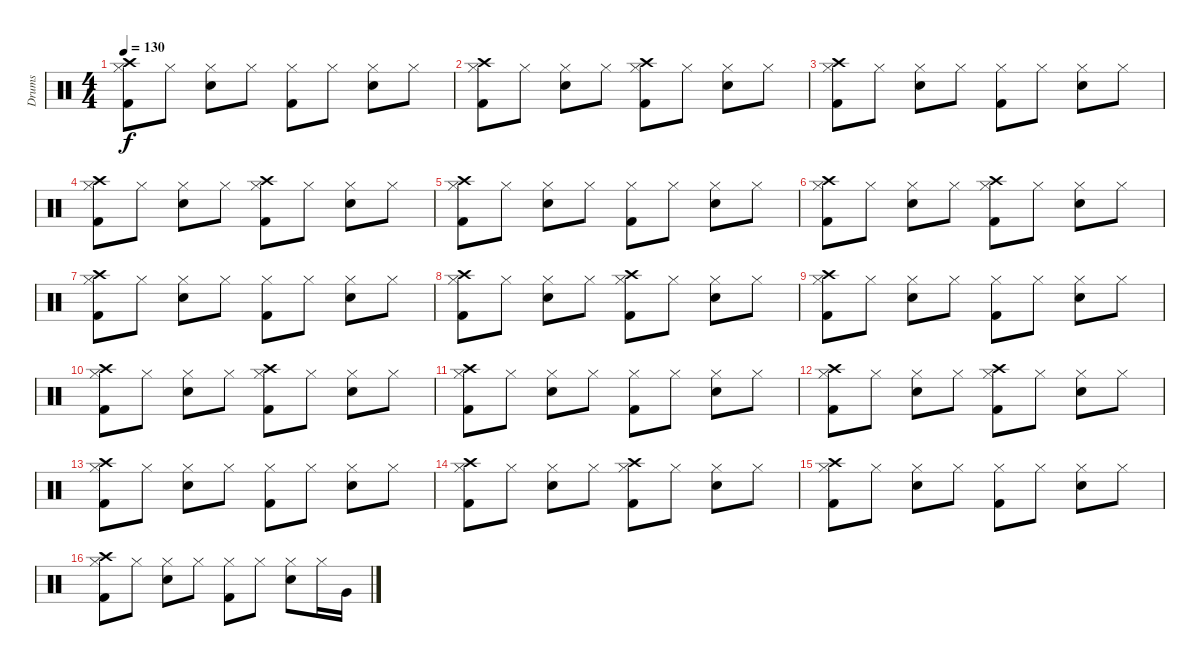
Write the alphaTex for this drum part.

\track ("Drums" "Drums") {instrument percussion}
\staff {score}
\articulation defaults
\ts (4 4)
\tempo 130
\clef neutral
\ks c
("Kick (hit) 2" "Hi-Hat (closed)" "Crash high (hit)").8{dy f} "Hi-Hat (closed)".8 ("Snare (hit) 2" "Hi-Hat (closed)").8 "Hi-Hat (closed)".8 ("Kick (hit) 2" "Hi-Hat (closed)").8 "Hi-Hat (closed)".8 ("Snare (hit) 2" "Hi-Hat (closed)").8 "Hi-Hat (closed)".8 |
("Kick (hit) 2" "Hi-Hat (closed)" "Crash high (hit)").8 "Hi-Hat (closed)".8 ("Snare (hit) 2" "Hi-Hat (closed)").8 "Hi-Hat (closed)".8 ("Kick (hit) 2" "Hi-Hat (closed)" "Crash high (hit)").8 "Hi-Hat (closed)".8 ("Snare (hit) 2" "Hi-Hat (closed)").8 "Hi-Hat (closed)".8 |
("Kick (hit) 2" "Hi-Hat (closed)" "Crash high (hit)").8 "Hi-Hat (closed)".8 ("Snare (hit) 2" "Hi-Hat (closed)").8 "Hi-Hat (closed)".8 ("Kick (hit) 2" "Hi-Hat (closed)").8 "Hi-Hat (closed)".8 ("Snare (hit) 2" "Hi-Hat (closed)").8 "Hi-Hat (closed)".8 |
("Kick (hit) 2" "Hi-Hat (closed)" "Crash high (hit)").8 "Hi-Hat (closed)".8 ("Snare (hit) 2" "Hi-Hat (closed)").8 "Hi-Hat (closed)".8 ("Kick (hit) 2" "Hi-Hat (closed)" "Crash high (hit)").8 "Hi-Hat (closed)".8 ("Snare (hit) 2" "Hi-Hat (closed)").8 "Hi-Hat (closed)".8 |
("Kick (hit) 2" "Hi-Hat (closed)" "Crash high (hit)").8 "Hi-Hat (closed)".8 ("Snare (hit) 2" "Hi-Hat (closed)").8 "Hi-Hat (closed)".8 ("Kick (hit) 2" "Hi-Hat (closed)").8 "Hi-Hat (closed)".8 ("Snare (hit) 2" "Hi-Hat (closed)").8 "Hi-Hat (closed)".8 |
("Kick (hit) 2" "Hi-Hat (closed)" "Crash high (hit)").8 "Hi-Hat (closed)".8 ("Snare (hit) 2" "Hi-Hat (closed)").8 "Hi-Hat (closed)".8 ("Kick (hit) 2" "Hi-Hat (closed)" "Crash high (hit)").8 "Hi-Hat (closed)".8 ("Snare (hit) 2" "Hi-Hat (closed)").8 "Hi-Hat (closed)".8 |
("Kick (hit) 2" "Hi-Hat (closed)" "Crash high (hit)").8 "Hi-Hat (closed)".8 ("Snare (hit) 2" "Hi-Hat (closed)").8 "Hi-Hat (closed)".8 ("Kick (hit) 2" "Hi-Hat (closed)").8 "Hi-Hat (closed)".8 ("Snare (hit) 2" "Hi-Hat (closed)").8 "Hi-Hat (closed)".8 |
("Kick (hit) 2" "Hi-Hat (closed)" "Crash high (hit)").8 "Hi-Hat (closed)".8 ("Snare (hit) 2" "Hi-Hat (closed)").8 "Hi-Hat (closed)".8 ("Kick (hit) 2" "Hi-Hat (closed)" "Crash high (hit)").8 "Hi-Hat (closed)".8 ("Snare (hit) 2" "Hi-Hat (closed)").8 "Hi-Hat (closed)".8 |
("Kick (hit) 2" "Hi-Hat (closed)" "Crash high (hit)").8 "Hi-Hat (closed)".8 ("Snare (hit) 2" "Hi-Hat (closed)").8 "Hi-Hat (closed)".8 ("Kick (hit) 2" "Hi-Hat (closed)").8 "Hi-Hat (closed)".8 ("Snare (hit) 2" "Hi-Hat (closed)").8 "Hi-Hat (closed)".8 |
("Kick (hit) 2" "Hi-Hat (closed)" "Crash high (hit)").8 "Hi-Hat (closed)".8 ("Snare (hit) 2" "Hi-Hat (closed)").8 "Hi-Hat (closed)".8 ("Kick (hit) 2" "Hi-Hat (closed)" "Crash high (hit)").8 "Hi-Hat (closed)".8 ("Snare (hit) 2" "Hi-Hat (closed)").8 "Hi-Hat (closed)".8 |
("Kick (hit) 2" "Hi-Hat (closed)" "Crash high (hit)").8 "Hi-Hat (closed)".8 ("Snare (hit) 2" "Hi-Hat (closed)").8 "Hi-Hat (closed)".8 ("Kick (hit) 2" "Hi-Hat (closed)").8 "Hi-Hat (closed)".8 ("Snare (hit) 2" "Hi-Hat (closed)").8 "Hi-Hat (closed)".8 |
("Kick (hit) 2" "Hi-Hat (closed)" "Crash high (hit)").8 "Hi-Hat (closed)".8 ("Snare (hit) 2" "Hi-Hat (closed)").8 "Hi-Hat (closed)".8 ("Kick (hit) 2" "Hi-Hat (closed)" "Crash high (hit)").8 "Hi-Hat (closed)".8 ("Snare (hit) 2" "Hi-Hat (closed)").8 "Hi-Hat (closed)".8 |
("Kick (hit) 2" "Hi-Hat (closed)" "Crash high (hit)").8 "Hi-Hat (closed)".8 ("Snare (hit) 2" "Hi-Hat (closed)").8 "Hi-Hat (closed)".8 ("Kick (hit) 2" "Hi-Hat (closed)").8 "Hi-Hat (closed)".8 ("Snare (hit) 2" "Hi-Hat (closed)").8 "Hi-Hat (closed)".8 |
("Kick (hit) 2" "Hi-Hat (closed)" "Crash high (hit)").8 "Hi-Hat (closed)".8 ("Snare (hit) 2" "Hi-Hat (closed)").8 "Hi-Hat (closed)".8 ("Kick (hit) 2" "Hi-Hat (closed)" "Crash high (hit)").8 "Hi-Hat (closed)".8 ("Snare (hit) 2" "Hi-Hat (closed)").8 "Hi-Hat (closed)".8 |
("Kick (hit) 2" "Hi-Hat (closed)" "Crash high (hit)").8 "Hi-Hat (closed)".8 ("Snare (hit) 2" "Hi-Hat (closed)").8 "Hi-Hat (closed)".8 ("Kick (hit) 2" "Hi-Hat (closed)").8 "Hi-Hat (closed)".8 ("Snare (hit) 2" "Hi-Hat (closed)").8 "Hi-Hat (closed)".8 |
("Kick (hit) 2" "Hi-Hat (closed)" "Crash high (hit)").8 "Hi-Hat (closed)".8 ("Snare (hit) 2" "Hi-Hat (closed)").8 "Hi-Hat (closed)".8 ("Kick (hit) 2" "Hi-Hat (closed)").8 "Hi-Hat (closed)".8 ("Snare (hit) 2" "Hi-Hat (closed)").8 "Hi-Hat (closed)".16 "Very Low Tom (hit)".16
